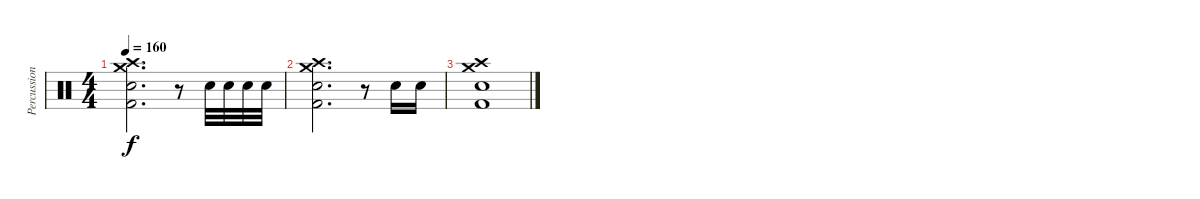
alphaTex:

\track ("Percussion" "Percussion") {instrument percussion}
\staff {score}
\articulation defaults
\ts (4 4)
\tempo 160
\clef neutral
\ks c
("Crash medium (hit)" "Crash high (hit)" "Electric Snare (hit)" "Kick (hit) 2").2{d dy f} r.8 "Electric Snare (hit)".32 "Electric Snare (hit)".32 "Electric Snare (hit)".32 "Electric Snare (hit)".32 |
("Crash medium (hit)" "Crash high (hit)" "Electric Snare (hit)" "Kick (hit) 2").2{d} r.8 "Electric Snare (hit)".16 "Electric Snare (hit)".16 |
("Crash medium (hit)" "Crash high (hit)" "Electric Snare (hit)" "Kick (hit) 2").1
